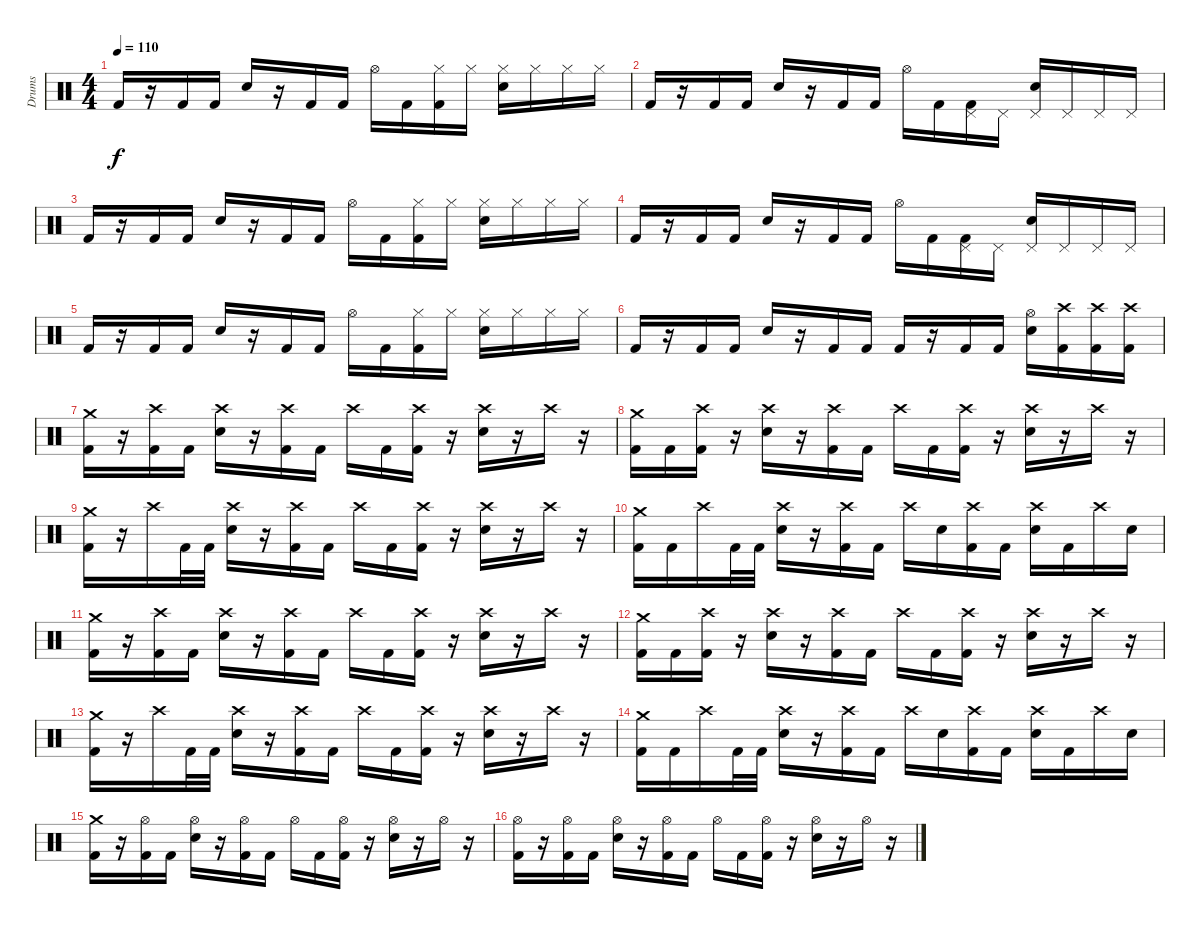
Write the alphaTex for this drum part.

\track ("Drums" "Drums") {mute instrument percussion}
\staff {score}
\articulation defaults
\ts (4 4)
\tempo 110
\clef neutral
\ks c "Kick (hit) 2".16{dy f}
r.16 "Kick (hit) 2".16 "Kick (hit) 2".16 "Electric Snare (hit)".16 r.16 "Kick (hit) 2".16 "Kick (hit) 2".16 "Hi-Hat (open)".16 "Kick (hit) 2".16 ("Hi-Hat (closed)" "Kick (hit) 2").16 "Hi-Hat (closed)".16 ("Hi-Hat (closed)" "Electric Snare (hit)").16 "Hi-Hat (closed)".16 "Hi-Hat (closed)".16 "Hi-Hat (closed)".16 |
"Kick (hit) 2".16 r.16 "Kick (hit) 2".16 "Kick (hit) 2".16 "Electric Snare (hit)".16 r.16 "Kick (hit) 2".16 "Kick (hit) 2".16 "Hi-Hat (open)".16 "Kick (hit) 2".16 ("Pedal Hi-Hat (hit)" "Kick (hit) 2").16 "Pedal Hi-Hat (hit)".16 ("Pedal Hi-Hat (hit)" "Electric Snare (hit)").16 "Pedal Hi-Hat (hit)".16 "Pedal Hi-Hat (hit)".16 "Pedal Hi-Hat (hit)".16 |
"Kick (hit) 2".16 r.16 "Kick (hit) 2".16 "Kick (hit) 2".16 "Electric Snare (hit)".16 r.16 "Kick (hit) 2".16 "Kick (hit) 2".16 "Hi-Hat (open)".16 "Kick (hit) 2".16 ("Hi-Hat (closed)" "Kick (hit) 2").16 "Hi-Hat (closed)".16 ("Hi-Hat (closed)" "Electric Snare (hit)").16 "Hi-Hat (closed)".16 "Hi-Hat (closed)".16 "Hi-Hat (closed)".16 |
"Kick (hit) 2".16 r.16 "Kick (hit) 2".16 "Kick (hit) 2".16 "Electric Snare (hit)".16 r.16 "Kick (hit) 2".16 "Kick (hit) 2".16 "Hi-Hat (open)".16 "Kick (hit) 2".16 ("Pedal Hi-Hat (hit)" "Kick (hit) 2").16 "Pedal Hi-Hat (hit)".16 ("Pedal Hi-Hat (hit)" "Electric Snare (hit)").16 "Pedal Hi-Hat (hit)".16 "Pedal Hi-Hat (hit)".16 "Pedal Hi-Hat (hit)".16 |
"Kick (hit) 2".16 r.16 "Kick (hit) 2".16 "Kick (hit) 2".16 "Electric Snare (hit)".16 r.16 "Kick (hit) 2".16 "Kick (hit) 2".16 "Hi-Hat (open)".16 "Kick (hit) 2".16 ("Hi-Hat (closed)" "Kick (hit) 2").16 "Hi-Hat (closed)".16 ("Hi-Hat (closed)" "Electric Snare (hit)").16 "Hi-Hat (closed)".16 "Hi-Hat (closed)".16 "Hi-Hat (closed)".16 |
"Kick (hit) 2".16 r.16 "Kick (hit) 2".16 "Kick (hit) 2".16 "Electric Snare (hit)".16 r.16 "Kick (hit) 2".16 "Kick (hit) 2".16 "Kick (hit) 2".16 r.16 "Kick (hit) 2".16 "Kick (hit) 2".16 ("Electric Snare (hit)" "Hi-Hat (open)").16 ("Kick (hit) 2" "Crash high (hit)").16 ("Kick (hit) 2" "Crash high (hit)").16 ("Kick (hit) 2" "Crash high (hit)").16 |
("Crash medium (hit)" "Kick (hit) 2").16 r.16 ("Crash high (hit)" "Kick (hit) 2").16 "Kick (hit) 2".16 ("Crash high (hit)" "Electric Snare (hit)").16 r.16 ("Crash high (hit)" "Kick (hit) 2").16 "Kick (hit) 2".16 "Crash high (hit)".16 "Kick (hit) 2".16 ("Crash high (hit)" "Kick (hit) 2").16 r.16 ("Crash high (hit)" "Electric Snare (hit)").16 r.16 "Crash high (hit)".16 r.16 |
("Crash medium (hit)" "Kick (hit) 2").16 "Kick (hit) 2".16 ("Crash high (hit)" "Kick (hit) 2").16 r.16 ("Crash high (hit)" "Electric Snare (hit)").16 r.16 ("Crash high (hit)" "Kick (hit) 2").16 "Kick (hit) 2".16 "Crash high (hit)".16 "Kick (hit) 2".16 ("Crash high (hit)" "Kick (hit) 2").16 r.16 ("Crash high (hit)" "Electric Snare (hit)").16 r.16 "Crash high (hit)".16 r.16 |
("Crash medium (hit)" "Kick (hit) 2").16 r.16 "Crash high (hit)".16 "Kick (hit) 2".32 "Kick (hit) 2".32 ("Crash high (hit)" "Electric Snare (hit)").16 r.16 ("Crash high (hit)" "Kick (hit) 2").16 "Kick (hit) 2".16 "Crash high (hit)".16 "Kick (hit) 2".16 ("Crash high (hit)" "Kick (hit) 2").16 r.16 ("Crash high (hit)" "Electric Snare (hit)").16 r.16 "Crash high (hit)".16 r.16 |
("Crash medium (hit)" "Kick (hit) 2").16 "Kick (hit) 2".16 "Crash high (hit)".16 "Kick (hit) 2".32 "Kick (hit) 2".32 ("Crash high (hit)" "Electric Snare (hit)").16 r.16 ("Crash high (hit)" "Kick (hit) 2").16 "Kick (hit) 2".16 "Crash high (hit)".16 "Electric Snare (hit)".16 ("Crash high (hit)" "Kick (hit) 2").16 "Kick (hit) 2".16 ("Crash high (hit)" "Electric Snare (hit)").16 "Kick (hit) 2".16 "Crash high (hit)".16 "Electric Snare (hit)".16 |
("Crash medium (hit)" "Kick (hit) 2").16 r.16 ("Crash high (hit)" "Kick (hit) 2").16 "Kick (hit) 2".16 ("Crash high (hit)" "Electric Snare (hit)").16 r.16 ("Crash high (hit)" "Kick (hit) 2").16 "Kick (hit) 2".16 "Crash high (hit)".16 "Kick (hit) 2".16 ("Crash high (hit)" "Kick (hit) 2").16 r.16 ("Crash high (hit)" "Electric Snare (hit)").16 r.16 "Crash high (hit)".16 r.16 |
("Crash medium (hit)" "Kick (hit) 2").16 "Kick (hit) 2".16 ("Crash high (hit)" "Kick (hit) 2").16 r.16 ("Crash high (hit)" "Electric Snare (hit)").16 r.16 ("Crash high (hit)" "Kick (hit) 2").16 "Kick (hit) 2".16 "Crash high (hit)".16 "Kick (hit) 2".16 ("Crash high (hit)" "Kick (hit) 2").16 r.16 ("Crash high (hit)" "Electric Snare (hit)").16 r.16 "Crash high (hit)".16 r.16 |
("Crash medium (hit)" "Kick (hit) 2").16 r.16 "Crash high (hit)".16 "Kick (hit) 2".32 "Kick (hit) 2".32 ("Crash high (hit)" "Electric Snare (hit)").16 r.16 ("Crash high (hit)" "Kick (hit) 2").16 "Kick (hit) 2".16 "Crash high (hit)".16 "Kick (hit) 2".16 ("Crash high (hit)" "Kick (hit) 2").16 r.16 ("Crash high (hit)" "Electric Snare (hit)").16 r.16 "Crash high (hit)".16 r.16 |
("Crash medium (hit)" "Kick (hit) 2").16 "Kick (hit) 2".16 "Crash high (hit)".16 "Kick (hit) 2".32 "Kick (hit) 2".32 ("Crash high (hit)" "Electric Snare (hit)").16 r.16 ("Crash high (hit)" "Kick (hit) 2").16 "Kick (hit) 2".16 "Crash high (hit)".16 "Electric Snare (hit)".16 ("Crash high (hit)" "Kick (hit) 2").16 "Kick (hit) 2".16 ("Crash high (hit)" "Electric Snare (hit)").16 "Kick (hit) 2".16 "Crash high (hit)".16 "Electric Snare (hit)".16 |
("Crash medium (hit)" "Kick (hit) 2").16 r.16 ("Hi-Hat (open)" "Kick (hit) 2").16 "Kick (hit) 2".16 ("Hi-Hat (open)" "Electric Snare (hit)").16 r.16 ("Hi-Hat (open)" "Kick (hit) 2").16 "Kick (hit) 2".16 "Hi-Hat (open)".16 "Kick (hit) 2".16 ("Hi-Hat (open)" "Kick (hit) 2").16 r.16 ("Hi-Hat (open)" "Electric Snare (hit)").16 r.16 "Hi-Hat (open)".16 r.16 |
("Hi-Hat (open)" "Kick (hit) 2").16 r.16 ("Hi-Hat (open)" "Kick (hit) 2").16 "Kick (hit) 2".16 ("Hi-Hat (open)" "Electric Snare (hit)").16 r.16 ("Hi-Hat (open)" "Kick (hit) 2").16 "Kick (hit) 2".16 "Hi-Hat (open)".16 "Kick (hit) 2".16 ("Hi-Hat (open)" "Kick (hit) 2").16 r.16 ("Hi-Hat (open)" "Electric Snare (hit)").16 r.16 "Hi-Hat (open)".16 r.16
